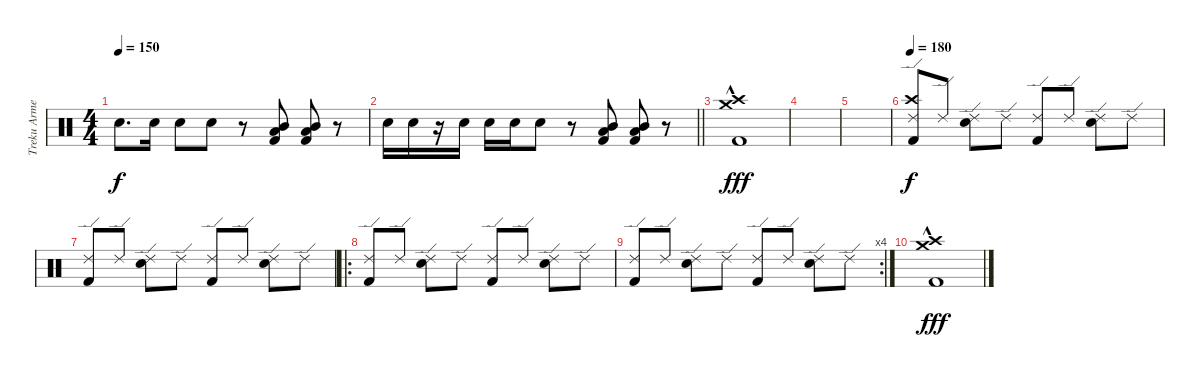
\track ("Treku Armendáriz" "Treku Arme") {instrument percussion}
\staff {score}
\articulation defaults
\ts (4 4)
\tempo 150
\clef neutral
\ks c "Electric Snare (hit)".8{d dy f} "Electric Snare (hit)".16 "Electric Snare (hit)".8 "Electric Snare (hit)".8
r.8 ("Kick (hit) 2" "Low Tom (hit)" "Mid Tom (hit)").8 ("Kick (hit) 2" "Low Tom (hit)" "Mid Tom (hit)").8 r.8 |
\barLineRight lightlight "Electric Snare (hit)".16 "Electric Snare (hit)".16
r.16 "Electric Snare (hit)".16 "Electric Snare (hit)".16 "Electric Snare (hit)".16 "Electric Snare (hit)".8 r.8 ("Kick (hit) 2" "Low Tom (hit)" "Mid Tom (hit)").8 ("Kick (hit) 2" "Low Tom (hit)" "Mid Tom (hit)").8 r.8 |
("Kick (hit) 2"{hac} "Crash high (hit)"{hac} "Crash medium (hit)"{hac}).1{dy fff} |
|
|
\tempo 180
("Ride (edge) 2" "Kick (hit) 2" "Crash high (hit)").8{dy f} "Ride (edge) 2".8 ("Ride (edge) 2" "Electric Snare (hit)").8 "Ride (edge) 2".8 ("Ride (edge) 2" "Kick (hit) 2").8 "Ride (edge) 2".8 ("Ride (edge) 2" "Electric Snare (hit)").8 "Ride (edge) 2".8 |
("Ride (edge) 2" "Kick (hit) 2").8 "Ride (edge) 2".8 ("Ride (edge) 2" "Electric Snare (hit)").8 "Ride (edge) 2".8 ("Ride (edge) 2" "Kick (hit) 2").8 "Ride (edge) 2".8 ("Ride (edge) 2" "Electric Snare (hit)").8 "Ride (edge) 2".8 |
\ro
("Ride (edge) 2" "Kick (hit) 2").8 "Ride (edge) 2".8 ("Ride (edge) 2" "Electric Snare (hit)").8 "Ride (edge) 2".8 ("Ride (edge) 2" "Kick (hit) 2").8 "Ride (edge) 2".8 ("Ride (edge) 2" "Electric Snare (hit)").8 "Ride (edge) 2".8 |
\rc 4
("Ride (edge) 2" "Kick (hit) 2").8 "Ride (edge) 2".8 ("Ride (edge) 2" "Electric Snare (hit)").8 "Ride (edge) 2".8 ("Ride (edge) 2" "Kick (hit) 2").8 "Ride (edge) 2".8 ("Ride (edge) 2" "Electric Snare (hit)").8 "Ride (edge) 2".8 |
("Kick (hit) 2"{hac} "Crash high (hit)"{hac} "Crash medium (hit)"{hac}).1{dy fff}
